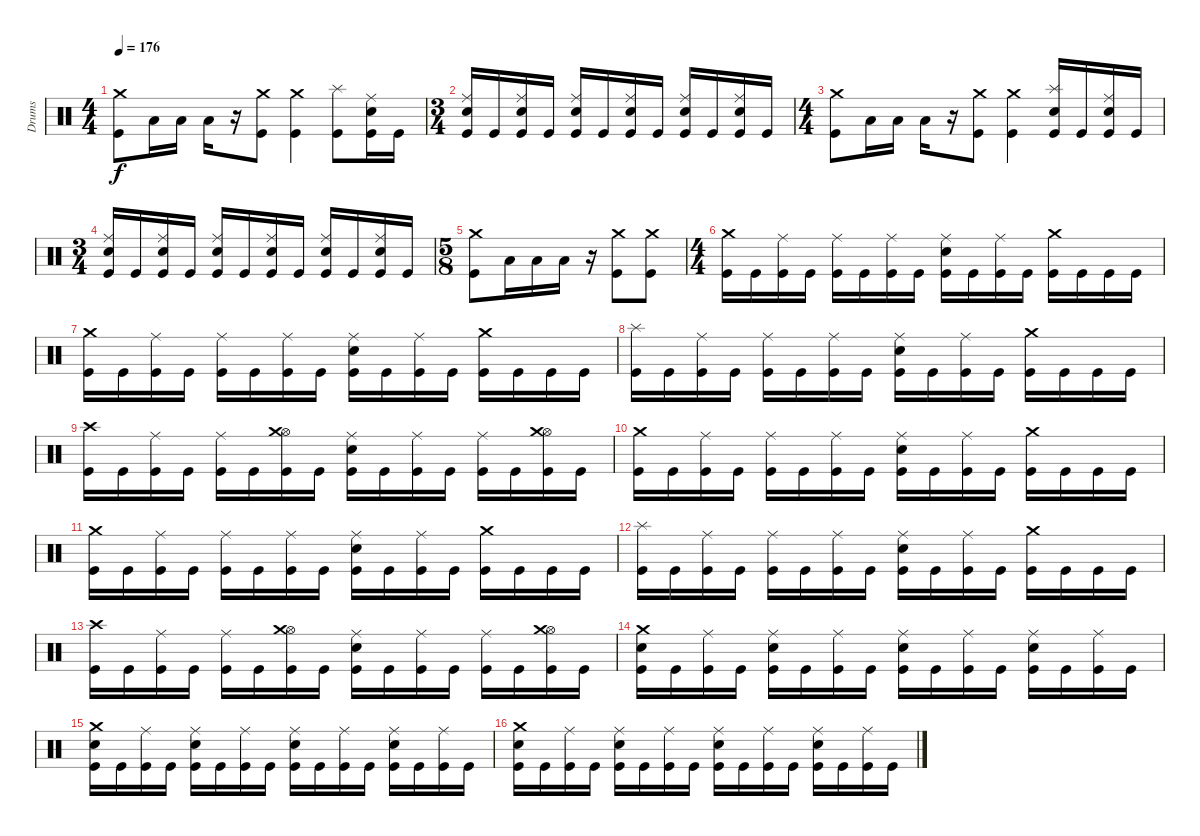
\track ("Drums" "Drums") {instrument percussion}
\staff {score}
\articulation defaults
\ts (4 4)
\tempo 176
\clef neutral
\ks c
("Crash medium (hit)" "Kick (hit)").8{dy f} "Low Tom (hit)".16 "Low Tom (hit)".16 "Low Tom (hit)".16 r.16 ("Crash medium (hit)" "Kick (hit)").8 ("Crash medium (hit)" "Kick (hit)").4 ("Splash (hit)" "Kick (hit)").8 ("Ride (middle)" "Electric Snare (hit)" "Kick (hit)").16 "Kick (hit)".16 |
\ts (3 4)
("Ride (middle)" "Electric Snare (hit)" "Kick (hit)").16 "Kick (hit)".16 ("Ride (middle)" "Electric Snare (hit)" "Kick (hit)").16 "Kick (hit)".16 ("Ride (middle)" "Electric Snare (hit)" "Kick (hit)").16 "Kick (hit)".16 ("Ride (middle)" "Electric Snare (hit)" "Kick (hit)").16 "Kick (hit)".16 ("Ride (middle)" "Electric Snare (hit)" "Kick (hit)").16 "Kick (hit)".16 ("Ride (middle)" "Electric Snare (hit)" "Kick (hit)").16 "Kick (hit)".16 |
\ts (4 4)
("Crash medium (hit)" "Kick (hit)").8 "Low Tom (hit)".16 "Low Tom (hit)".16 "Low Tom (hit)".16 r.16 ("Crash medium (hit)" "Kick (hit)").8 ("Crash medium (hit)" "Kick (hit)").4 ("Splash (hit)" "Electric Snare (hit)" "Kick (hit)").16 "Kick (hit)".16 ("Ride (middle)" "Electric Snare (hit)" "Kick (hit)").16 "Kick (hit)".16 |
\ts (3 4)
("Ride (middle)" "Electric Snare (hit)" "Kick (hit)").16 "Kick (hit)".16 ("Ride (middle)" "Electric Snare (hit)" "Kick (hit)").16 "Kick (hit)".16 ("Ride (middle)" "Electric Snare (hit)" "Kick (hit)").16 "Kick (hit)".16 ("Ride (middle)" "Electric Snare (hit)" "Kick (hit)").16 "Kick (hit)".16 ("Ride (middle)" "Electric Snare (hit)" "Kick (hit)").16 "Kick (hit)".16 ("Ride (middle)" "Electric Snare (hit)" "Kick (hit)").16 "Kick (hit)".16 |
\ts (5 8)
("Crash medium (hit)" "Kick (hit)").8 "Low Tom (hit)".16 "Low Tom (hit)".16 "Low Tom (hit)".16 r.16 ("Crash medium (hit)" "Kick (hit)").8 ("Crash medium (hit)" "Kick (hit)").8 |
\ts (4 4)
("Crash medium (hit)" "Kick (hit)").16 "Kick (hit)".16 ("Ride (middle)" "Kick (hit)").16 "Kick (hit)".16 ("Ride (middle)" "Kick (hit)").16 "Kick (hit)".16 ("Ride (middle)" "Kick (hit)").16 "Kick (hit)".16 ("Ride (middle)" "Electric Snare (hit)" "Kick (hit)").16 "Kick (hit)".16 ("Ride (middle)" "Kick (hit)").16 "Kick (hit)".16 ("Crash medium (hit)" "Kick (hit)").16 "Kick (hit)".16 "Kick (hit)".16 "Kick (hit)".16 |
("Crash medium (hit)" "Kick (hit)").16 "Kick (hit)".16 ("Ride (middle)" "Kick (hit)").16 "Kick (hit)".16 ("Ride (middle)" "Kick (hit)").16 "Kick (hit)".16 ("Ride (middle)" "Kick (hit)").16 "Kick (hit)".16 ("Ride (middle)" "Electric Snare (hit)" "Kick (hit)").16 "Kick (hit)".16 ("Ride (middle)" "Kick (hit)").16 "Kick (hit)".16 ("Crash medium (hit)" "Kick (hit)").16 "Kick (hit)".16 "Kick (hit)".16 "Kick (hit)".16 |
("Splash (hit)" "Kick (hit)").16 "Kick (hit)".16 ("Ride (middle)" "Kick (hit)").16 "Kick (hit)".16 ("Ride (middle)" "Kick (hit)").16 "Kick (hit)".16 ("Ride (middle)" "Kick (hit)").16 "Kick (hit)".16 ("Ride (middle)" "Electric Snare (hit)" "Kick (hit)").16 "Kick (hit)".16 ("Ride (middle)" "Kick (hit)").16 "Kick (hit)".16 ("Crash medium (hit)" "Kick (hit)").16 "Kick (hit)".16 "Kick (hit)".16 "Kick (hit)".16 |
("Crash high (hit)" "Kick (hit)").16 "Kick (hit)".16 ("Ride (middle)" "Kick (hit)").16 "Kick (hit)".16 ("Ride (middle)" "Kick (hit)").16 "Kick (hit)".16 ("Hi-Hat (open)" "Crash medium (hit)" "Kick (hit)").16 "Kick (hit)".16 ("Ride (middle)" "Electric Snare (hit)" "Kick (hit)").16 "Kick (hit)".16 ("Ride (middle)" "Kick (hit)").16 "Kick (hit)".16 ("Ride (middle)" "Kick (hit)").16 "Kick (hit)".16 ("Hi-Hat (open)" "Crash medium (hit)" "Kick (hit)").16 "Kick (hit)".16 |
("Crash medium (hit)" "Kick (hit)").16 "Kick (hit)".16 ("Ride (middle)" "Kick (hit)").16 "Kick (hit)".16 ("Ride (middle)" "Kick (hit)").16 "Kick (hit)".16 ("Ride (middle)" "Kick (hit)").16 "Kick (hit)".16 ("Ride (middle)" "Electric Snare (hit)" "Kick (hit)").16 "Kick (hit)".16 ("Ride (middle)" "Kick (hit)").16 "Kick (hit)".16 ("Crash medium (hit)" "Kick (hit)").16 "Kick (hit)".16 "Kick (hit)".16 "Kick (hit)".16 |
("Crash medium (hit)" "Kick (hit)").16 "Kick (hit)".16 ("Ride (middle)" "Kick (hit)").16 "Kick (hit)".16 ("Ride (middle)" "Kick (hit)").16 "Kick (hit)".16 ("Ride (middle)" "Kick (hit)").16 "Kick (hit)".16 ("Ride (middle)" "Electric Snare (hit)" "Kick (hit)").16 "Kick (hit)".16 ("Ride (middle)" "Kick (hit)").16 "Kick (hit)".16 ("Crash medium (hit)" "Kick (hit)").16 "Kick (hit)".16 "Kick (hit)".16 "Kick (hit)".16 |
("Splash (hit)" "Kick (hit)").16 "Kick (hit)".16 ("Ride (middle)" "Kick (hit)").16 "Kick (hit)".16 ("Ride (middle)" "Kick (hit)").16 "Kick (hit)".16 ("Ride (middle)" "Kick (hit)").16 "Kick (hit)".16 ("Ride (middle)" "Electric Snare (hit)" "Kick (hit)").16 "Kick (hit)".16 ("Ride (middle)" "Kick (hit)").16 "Kick (hit)".16 ("Crash medium (hit)" "Kick (hit)").16 "Kick (hit)".16 "Kick (hit)".16 "Kick (hit)".16 |
("Crash high (hit)" "Kick (hit)").16 "Kick (hit)".16 ("Ride (middle)" "Kick (hit)").16 "Kick (hit)".16 ("Ride (middle)" "Kick (hit)").16 "Kick (hit)".16 ("Hi-Hat (open)" "Crash medium (hit)" "Kick (hit)").16 "Kick (hit)".16 ("Ride (middle)" "Electric Snare (hit)" "Kick (hit)").16 "Kick (hit)".16 ("Ride (middle)" "Kick (hit)").16 "Kick (hit)".16 ("Ride (middle)" "Kick (hit)").16 "Kick (hit)".16 ("Hi-Hat (open)" "Crash medium (hit)" "Kick (hit)").16 "Kick (hit)".16 |
("Crash medium (hit)" "Electric Snare (hit)" "Kick (hit)").16 "Kick (hit)".16 ("Ride (middle)" "Kick (hit)").16 "Kick (hit)".16 ("Ride (middle)" "Electric Snare (hit)" "Kick (hit)").16 "Kick (hit)".16 ("Ride (middle)" "Kick (hit)").16 "Kick (hit)".16 ("Ride (middle)" "Electric Snare (hit)" "Kick (hit)").16 "Kick (hit)".16 ("Ride (middle)" "Kick (hit)").16 "Kick (hit)".16 ("Ride (middle)" "Electric Snare (hit)" "Kick (hit)").16 "Kick (hit)".16 ("Ride (middle)" "Kick (hit)").16 "Kick (hit)".16 |
("Crash medium (hit)" "Electric Snare (hit)" "Kick (hit)").16 "Kick (hit)".16 ("Ride (middle)" "Kick (hit)").16 "Kick (hit)".16 ("Ride (middle)" "Electric Snare (hit)" "Kick (hit)").16 "Kick (hit)".16 ("Ride (middle)" "Kick (hit)").16 "Kick (hit)".16 ("Ride (middle)" "Electric Snare (hit)" "Kick (hit)").16 "Kick (hit)".16 ("Ride (middle)" "Kick (hit)").16 "Kick (hit)".16 ("Ride (middle)" "Electric Snare (hit)" "Kick (hit)").16 "Kick (hit)".16 ("Ride (middle)" "Kick (hit)").16 "Kick (hit)".16 |
("Crash medium (hit)" "Electric Snare (hit)" "Kick (hit)").16 "Kick (hit)".16 ("Ride (middle)" "Kick (hit)").16 "Kick (hit)".16 ("Ride (middle)" "Electric Snare (hit)" "Kick (hit)").16 "Kick (hit)".16 ("Ride (middle)" "Kick (hit)").16 "Kick (hit)".16 ("Ride (middle)" "Electric Snare (hit)" "Kick (hit)").16 "Kick (hit)".16 ("Ride (middle)" "Kick (hit)").16 "Kick (hit)".16 ("Ride (middle)" "Electric Snare (hit)" "Kick (hit)").16 "Kick (hit)".16 ("Ride (middle)" "Kick (hit)").16 "Kick (hit)".16
